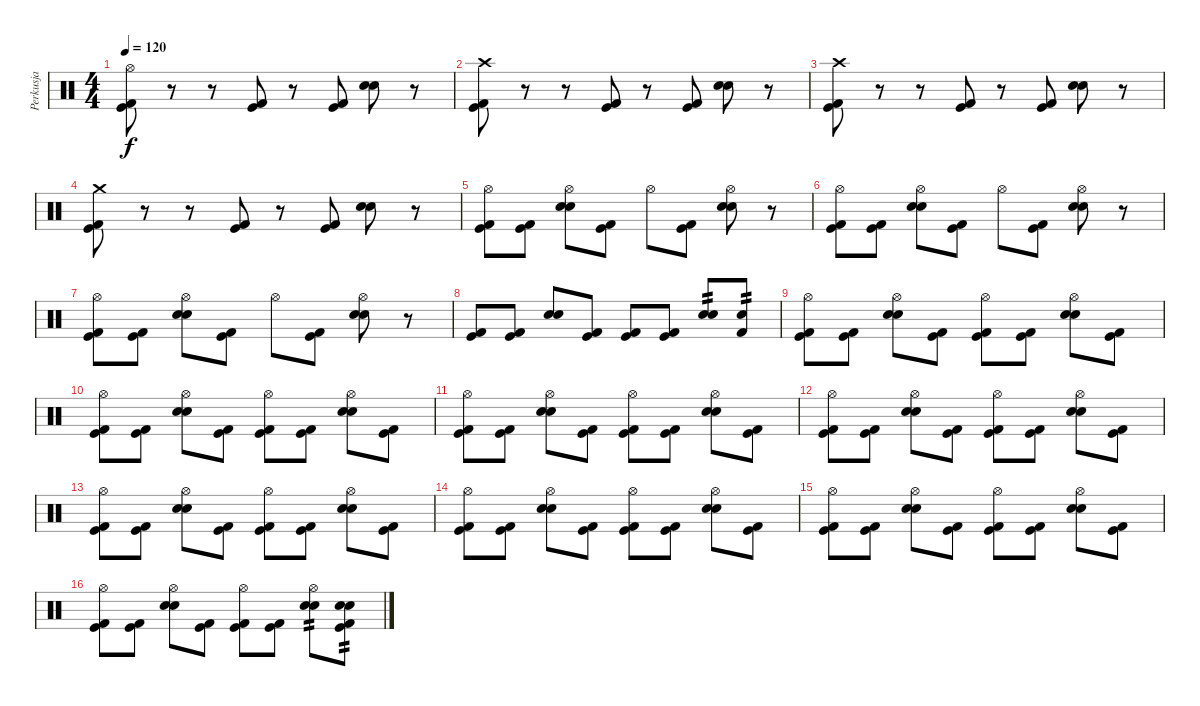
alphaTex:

\track ("Perkusja" "Perkusja") {instrument percussion}
\staff {score}
\articulation defaults
\ts (4 4)
\tempo 120
\clef neutral
\ks c
("Kick (hit) 2" "Kick (hit)" "Hi-Hat (open)").8{dy f} r.8 r.8 ("Kick (hit) 2" "Kick (hit)").8 r.8 ("Kick (hit) 2" "Kick (hit)").8 ("Snare (hit) 2" "Electric Snare (hit)").8 r.8 |
("Kick (hit) 2" "Kick (hit)" "Crash high (hit)").8 r.8 r.8 ("Kick (hit) 2" "Kick (hit)").8 r.8 ("Kick (hit) 2" "Kick (hit)").8 ("Snare (hit) 2" "Electric Snare (hit)").8 r.8 |
("Kick (hit) 2" "Kick (hit)" "Crash high (hit)").8 r.8 r.8 ("Kick (hit) 2" "Kick (hit)").8 r.8 ("Kick (hit) 2" "Kick (hit)").8 ("Snare (hit) 2" "Electric Snare (hit)").8 r.8 |
("Kick (hit) 2" "Kick (hit)" "Crash medium (hit)").8 r.8 r.8 ("Kick (hit) 2" "Kick (hit)").8 r.8 ("Kick (hit) 2" "Kick (hit)").8 ("Snare (hit) 2" "Electric Snare (hit)").8 r.8 |
("Kick (hit) 2" "Kick (hit)" "Hi-Hat (open)").8 ("Kick (hit) 2" "Kick (hit)").8 ("Snare (hit) 2" "Electric Snare (hit)" "Hi-Hat (open)").8 ("Kick (hit) 2" "Kick (hit)").8 "Hi-Hat (open)".8 ("Kick (hit) 2" "Kick (hit)").8 ("Snare (hit) 2" "Electric Snare (hit)" "Hi-Hat (open)").8 r.8 |
("Kick (hit) 2" "Kick (hit)" "Hi-Hat (open)").8 ("Kick (hit) 2" "Kick (hit)").8 ("Snare (hit) 2" "Electric Snare (hit)" "Hi-Hat (open)").8 ("Kick (hit) 2" "Kick (hit)").8 "Hi-Hat (open)".8 ("Kick (hit) 2" "Kick (hit)").8 ("Snare (hit) 2" "Electric Snare (hit)" "Hi-Hat (open)").8 r.8 |
("Kick (hit) 2" "Kick (hit)" "Hi-Hat (open)").8 ("Kick (hit) 2" "Kick (hit)").8 ("Snare (hit) 2" "Electric Snare (hit)" "Hi-Hat (open)").8 ("Kick (hit) 2" "Kick (hit)").8 "Hi-Hat (open)".8 ("Kick (hit) 2" "Kick (hit)").8 ("Snare (hit) 2" "Electric Snare (hit)" "Hi-Hat (open)").8 r.8 |
("Kick (hit) 2" "Kick (hit)").8 ("Kick (hit) 2" "Kick (hit)").8 ("Snare (hit) 2" "Electric Snare (hit)").8 ("Kick (hit) 2" "Kick (hit)").8 ("Kick (hit) 2" "Kick (hit)").8 ("Kick (hit) 2" "Kick (hit)").8 ("Snare (hit) 2" "Electric Snare (hit)").8{tp 2} ("Kick (hit) 2" "Electric Snare (hit)").8{tp 2} |
("Kick (hit) 2" "Kick (hit)" "Hi-Hat (open)").8 ("Kick (hit) 2" "Kick (hit)").8 ("Snare (hit) 2" "Electric Snare (hit)" "Hi-Hat (open)").8 ("Kick (hit) 2" "Kick (hit)").8 ("Kick (hit) 2" "Kick (hit)" "Hi-Hat (open)").8 ("Kick (hit) 2" "Kick (hit)").8 ("Snare (hit) 2" "Electric Snare (hit)" "Hi-Hat (open)").8 ("Kick (hit) 2" "Kick (hit)").8 |
("Kick (hit) 2" "Kick (hit)" "Hi-Hat (open)").8 ("Kick (hit) 2" "Kick (hit)").8 ("Snare (hit) 2" "Electric Snare (hit)" "Hi-Hat (open)").8 ("Kick (hit) 2" "Kick (hit)").8 ("Kick (hit) 2" "Kick (hit)" "Hi-Hat (open)").8 ("Kick (hit) 2" "Kick (hit)").8 ("Snare (hit) 2" "Electric Snare (hit)" "Hi-Hat (open)").8 ("Kick (hit) 2" "Kick (hit)").8 |
("Kick (hit) 2" "Kick (hit)" "Hi-Hat (open)").8 ("Kick (hit) 2" "Kick (hit)").8 ("Snare (hit) 2" "Electric Snare (hit)" "Hi-Hat (open)").8 ("Kick (hit) 2" "Kick (hit)").8 ("Kick (hit) 2" "Kick (hit)" "Hi-Hat (open)").8 ("Kick (hit) 2" "Kick (hit)").8 ("Snare (hit) 2" "Electric Snare (hit)" "Hi-Hat (open)").8 ("Kick (hit) 2" "Kick (hit)").8 |
("Kick (hit) 2" "Kick (hit)" "Hi-Hat (open)").8 ("Kick (hit) 2" "Kick (hit)").8 ("Snare (hit) 2" "Electric Snare (hit)" "Hi-Hat (open)").8 ("Kick (hit) 2" "Kick (hit)").8 ("Kick (hit) 2" "Kick (hit)" "Hi-Hat (open)").8 ("Kick (hit) 2" "Kick (hit)").8 ("Snare (hit) 2" "Electric Snare (hit)" "Hi-Hat (open)").8 ("Kick (hit) 2" "Kick (hit)").8 |
("Kick (hit) 2" "Kick (hit)" "Hi-Hat (open)").8 ("Kick (hit) 2" "Kick (hit)").8 ("Snare (hit) 2" "Electric Snare (hit)" "Hi-Hat (open)").8 ("Kick (hit) 2" "Kick (hit)").8 ("Kick (hit) 2" "Kick (hit)" "Hi-Hat (open)").8 ("Kick (hit) 2" "Kick (hit)").8 ("Snare (hit) 2" "Electric Snare (hit)" "Hi-Hat (open)").8 ("Kick (hit) 2" "Kick (hit)").8 |
("Kick (hit) 2" "Kick (hit)" "Hi-Hat (open)").8 ("Kick (hit) 2" "Kick (hit)").8 ("Snare (hit) 2" "Electric Snare (hit)" "Hi-Hat (open)").8 ("Kick (hit) 2" "Kick (hit)").8 ("Kick (hit) 2" "Kick (hit)" "Hi-Hat (open)").8 ("Kick (hit) 2" "Kick (hit)").8 ("Snare (hit) 2" "Electric Snare (hit)" "Hi-Hat (open)").8 ("Kick (hit) 2" "Kick (hit)").8 |
("Kick (hit) 2" "Kick (hit)" "Hi-Hat (open)").8 ("Kick (hit) 2" "Kick (hit)").8 ("Snare (hit) 2" "Electric Snare (hit)" "Hi-Hat (open)").8 ("Kick (hit) 2" "Kick (hit)").8 ("Kick (hit) 2" "Kick (hit)" "Hi-Hat (open)").8 ("Kick (hit) 2" "Kick (hit)").8 ("Snare (hit) 2" "Electric Snare (hit)" "Hi-Hat (open)").8 ("Kick (hit) 2" "Kick (hit)").8 |
("Kick (hit) 2" "Kick (hit)" "Hi-Hat (open)").8 ("Kick (hit) 2" "Kick (hit)").8 ("Snare (hit) 2" "Electric Snare (hit)" "Hi-Hat (open)").8 ("Kick (hit) 2" "Kick (hit)").8 ("Kick (hit) 2" "Kick (hit)" "Hi-Hat (open)").8 ("Kick (hit) 2" "Kick (hit)").8 ("Snare (hit) 2" "Electric Snare (hit)" "Hi-Hat (open)").8{tp 2} ("Kick (hit) 2" "Kick (hit)" "Snare (hit) 2" "Electric Snare (hit)").8{tp 2}
